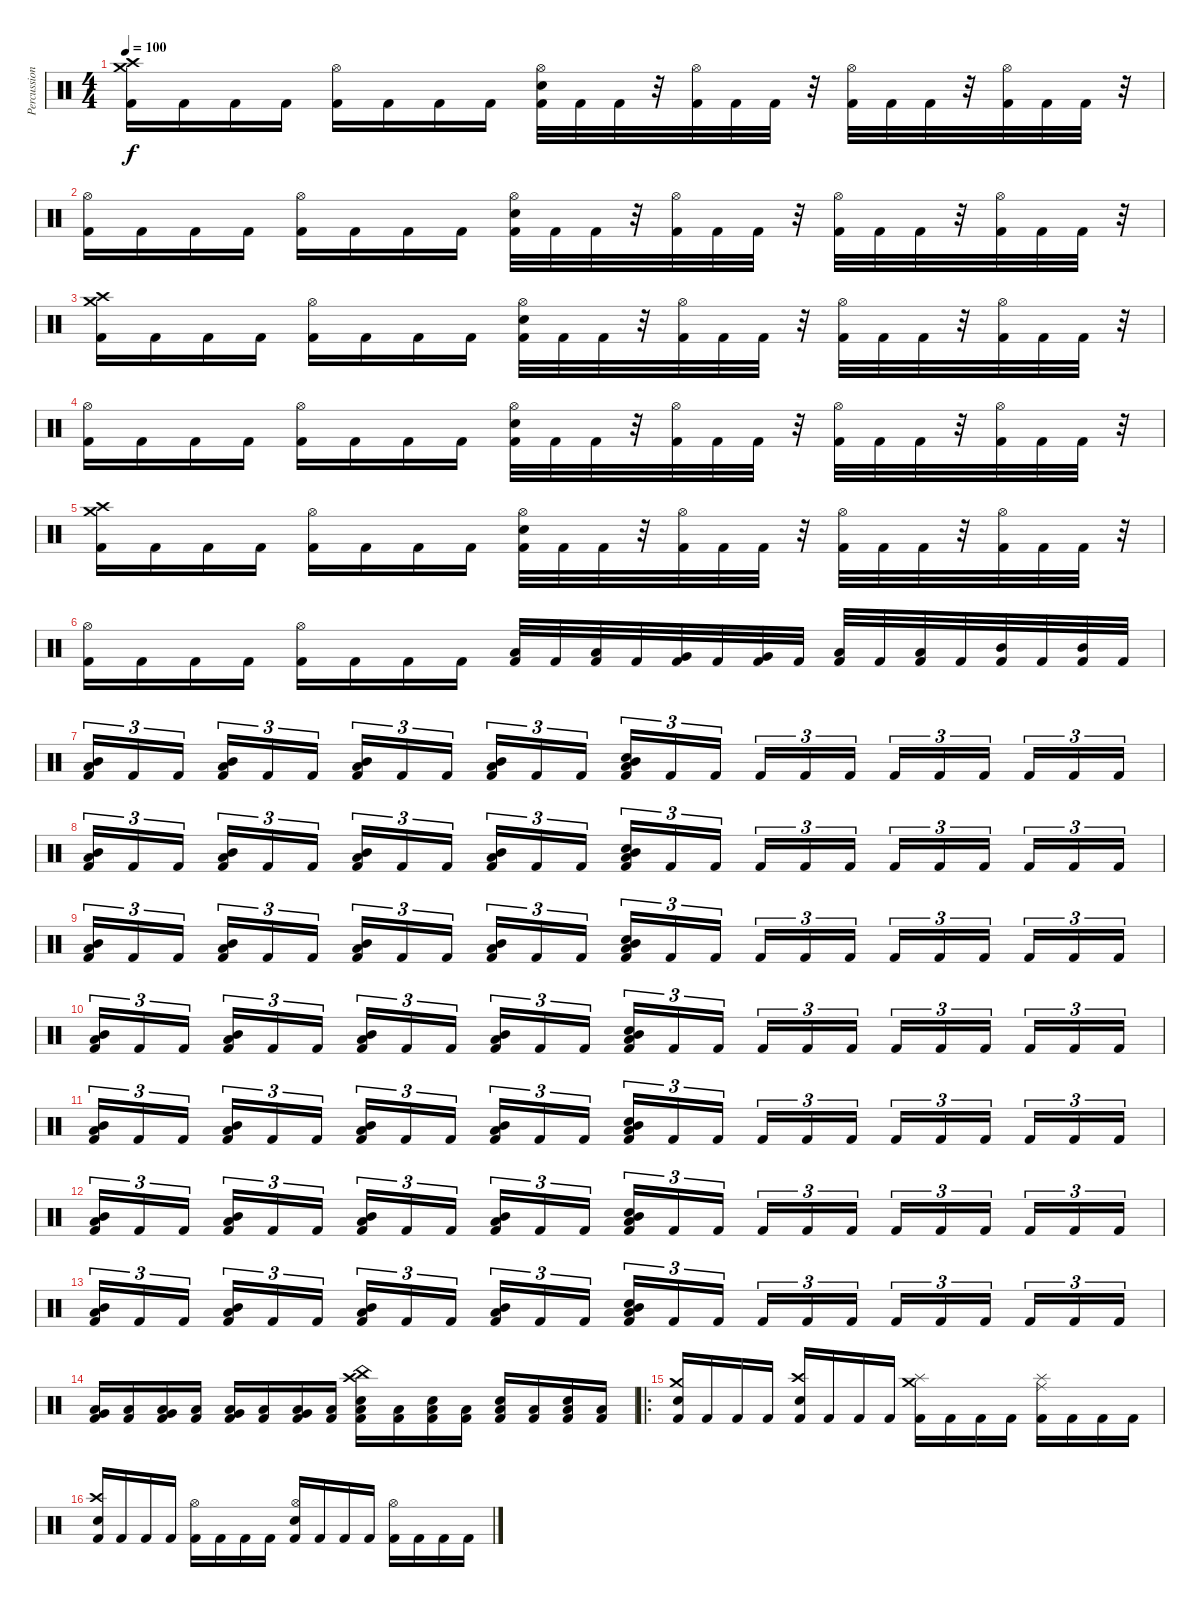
\track ("Percussion" "Percussion") {solo instrument percussion}
\staff {score}
\articulation defaults
\ts (4 4)
\tempo 100
\clef neutral
\ks c
("Kick (hit) 2" "Crash medium (hit)" "Crash high (hit)").16{dy f} "Kick (hit) 2".16 "Kick (hit) 2".16 "Kick (hit) 2".16 ("Kick (hit) 2" "Hi-Hat (open)").16 "Kick (hit) 2".16 "Kick (hit) 2".16 "Kick (hit) 2".16 ("Kick (hit) 2" "Hi-Hat (open)" "Snare (hit) 2").32 "Kick (hit) 2".32 "Kick (hit) 2".32 r.32 ("Kick (hit) 2" "Hi-Hat (open)").32 "Kick (hit) 2".32 "Kick (hit) 2".32 r.32 ("Kick (hit) 2" "Hi-Hat (open)").32 "Kick (hit) 2".32 "Kick (hit) 2".32 r.32 ("Kick (hit) 2" "Hi-Hat (open)").32 "Kick (hit) 2".32 "Kick (hit) 2".32 r.32 |
("Kick (hit) 2" "Hi-Hat (open)").16 "Kick (hit) 2".16 "Kick (hit) 2".16 "Kick (hit) 2".16 ("Kick (hit) 2" "Hi-Hat (open)").16 "Kick (hit) 2".16 "Kick (hit) 2".16 "Kick (hit) 2".16 ("Kick (hit) 2" "Hi-Hat (open)" "Snare (hit) 2").32 "Kick (hit) 2".32 "Kick (hit) 2".32 r.32 ("Kick (hit) 2" "Hi-Hat (open)").32 "Kick (hit) 2".32 "Kick (hit) 2".32 r.32 ("Kick (hit) 2" "Hi-Hat (open)").32 "Kick (hit) 2".32 "Kick (hit) 2".32 r.32 ("Kick (hit) 2" "Hi-Hat (open)").32 "Kick (hit) 2".32 "Kick (hit) 2".32 r.32 |
("Kick (hit) 2" "Crash medium (hit)" "Crash high (hit)").16 "Kick (hit) 2".16 "Kick (hit) 2".16 "Kick (hit) 2".16 ("Kick (hit) 2" "Hi-Hat (open)").16 "Kick (hit) 2".16 "Kick (hit) 2".16 "Kick (hit) 2".16 ("Kick (hit) 2" "Hi-Hat (open)" "Snare (hit) 2").32 "Kick (hit) 2".32 "Kick (hit) 2".32 r.32 ("Kick (hit) 2" "Hi-Hat (open)").32 "Kick (hit) 2".32 "Kick (hit) 2".32 r.32 ("Kick (hit) 2" "Hi-Hat (open)").32 "Kick (hit) 2".32 "Kick (hit) 2".32 r.32 ("Kick (hit) 2" "Hi-Hat (open)").32 "Kick (hit) 2".32 "Kick (hit) 2".32 r.32 |
("Kick (hit) 2" "Hi-Hat (open)").16 "Kick (hit) 2".16 "Kick (hit) 2".16 "Kick (hit) 2".16 ("Kick (hit) 2" "Hi-Hat (open)").16 "Kick (hit) 2".16 "Kick (hit) 2".16 "Kick (hit) 2".16 ("Kick (hit) 2" "Hi-Hat (open)" "Snare (hit) 2").32 "Kick (hit) 2".32 "Kick (hit) 2".32 r.32 ("Kick (hit) 2" "Hi-Hat (open)").32 "Kick (hit) 2".32 "Kick (hit) 2".32 r.32 ("Kick (hit) 2" "Hi-Hat (open)").32 "Kick (hit) 2".32 "Kick (hit) 2".32 r.32 ("Kick (hit) 2" "Hi-Hat (open)").32 "Kick (hit) 2".32 "Kick (hit) 2".32 r.32 |
("Kick (hit) 2" "Crash medium (hit)" "Crash high (hit)").16 "Kick (hit) 2".16 "Kick (hit) 2".16 "Kick (hit) 2".16 ("Kick (hit) 2" "Hi-Hat (open)").16 "Kick (hit) 2".16 "Kick (hit) 2".16 "Kick (hit) 2".16 ("Kick (hit) 2" "Hi-Hat (open)" "Snare (hit) 2").32 "Kick (hit) 2".32 "Kick (hit) 2".32 r.32 ("Kick (hit) 2" "Hi-Hat (open)").32 "Kick (hit) 2".32 "Kick (hit) 2".32 r.32 ("Kick (hit) 2" "Hi-Hat (open)").32 "Kick (hit) 2".32 "Kick (hit) 2".32 r.32 ("Kick (hit) 2" "Hi-Hat (open)").32 "Kick (hit) 2".32 "Kick (hit) 2".32 r.32 |
("Kick (hit) 2" "Hi-Hat (open)").16 "Kick (hit) 2".16 "Kick (hit) 2".16 "Kick (hit) 2".16 ("Kick (hit) 2" "Hi-Hat (open)").16 "Kick (hit) 2".16 "Kick (hit) 2".16 "Kick (hit) 2".16 ("Kick (hit) 2" "Low Floor Tom (hit)").32 "Kick (hit) 2".32 ("Kick (hit) 2" "Low Floor Tom (hit)").32 "Kick (hit) 2".32 ("Kick (hit) 2" "Very Low Tom (hit)").32 "Kick (hit) 2".32 ("Kick (hit) 2" "Very Low Tom (hit)").32 "Kick (hit) 2".32 ("Kick (hit) 2" "Low Floor Tom (hit)").32 "Kick (hit) 2".32 ("Kick (hit) 2" "Low Floor Tom (hit)").32 "Kick (hit) 2".32 ("Kick (hit) 2" "Mid Tom (hit)").32 "Kick (hit) 2".32 ("Kick (hit) 2" "Mid Tom (hit)").32 "Kick (hit) 2".32 |
("Kick (hit) 2" "Low Floor Tom (hit)" "Mid Tom (hit)").16{tu (3 2)} "Kick (hit) 2".16{tu (3 2)} "Kick (hit) 2".16{tu (3 2) beam splitsecondary} ("Kick (hit) 2" "Low Floor Tom (hit)" "Mid Tom (hit)").16{tu (3 2)} "Kick (hit) 2".16{tu (3 2)} "Kick (hit) 2".16{tu (3 2)} ("Kick (hit) 2" "Low Floor Tom (hit)" "Mid Tom (hit)").16{tu (3 2)} "Kick (hit) 2".16{tu (3 2)} "Kick (hit) 2".16{tu (3 2) beam splitsecondary} ("Kick (hit) 2" "Low Floor Tom (hit)" "Mid Tom (hit)").16{tu (3 2)} "Kick (hit) 2".16{tu (3 2)} "Kick (hit) 2".16{tu (3 2)} ("Kick (hit) 2" "Mid Tom (hit)" "Low Floor Tom (hit)" "Snare (hit) 2").16{tu (3 2)} "Kick (hit) 2".16{tu (3 2)} "Kick (hit) 2".16{tu (3 2) beam splitsecondary} "Kick (hit) 2".16{tu (3 2)} "Kick (hit) 2".16{tu (3 2)} "Kick (hit) 2".16{tu (3 2)} "Kick (hit) 2".16{tu (3 2)} "Kick (hit) 2".16{tu (3 2)} "Kick (hit) 2".16{tu (3 2) beam splitsecondary} "Kick (hit) 2".16{tu (3 2)} "Kick (hit) 2".16{tu (3 2)} "Kick (hit) 2".16{tu (3 2)} |
("Kick (hit) 2" "Low Floor Tom (hit)" "Mid Tom (hit)").16{tu (3 2)} "Kick (hit) 2".16{tu (3 2)} "Kick (hit) 2".16{tu (3 2) beam splitsecondary} ("Kick (hit) 2" "Low Floor Tom (hit)" "Mid Tom (hit)").16{tu (3 2)} "Kick (hit) 2".16{tu (3 2)} "Kick (hit) 2".16{tu (3 2)} ("Kick (hit) 2" "Low Floor Tom (hit)" "Mid Tom (hit)").16{tu (3 2)} "Kick (hit) 2".16{tu (3 2)} "Kick (hit) 2".16{tu (3 2) beam splitsecondary} ("Kick (hit) 2" "Low Floor Tom (hit)" "Mid Tom (hit)").16{tu (3 2)} "Kick (hit) 2".16{tu (3 2)} "Kick (hit) 2".16{tu (3 2)} ("Kick (hit) 2" "Mid Tom (hit)" "Low Floor Tom (hit)" "Snare (hit) 2").16{tu (3 2)} "Kick (hit) 2".16{tu (3 2)} "Kick (hit) 2".16{tu (3 2) beam splitsecondary} "Kick (hit) 2".16{tu (3 2)} "Kick (hit) 2".16{tu (3 2)} "Kick (hit) 2".16{tu (3 2)} "Kick (hit) 2".16{tu (3 2)} "Kick (hit) 2".16{tu (3 2)} "Kick (hit) 2".16{tu (3 2) beam splitsecondary} "Kick (hit) 2".16{tu (3 2)} "Kick (hit) 2".16{tu (3 2)} "Kick (hit) 2".16{tu (3 2)} |
("Kick (hit) 2" "Low Floor Tom (hit)" "Mid Tom (hit)").16{tu (3 2)} "Kick (hit) 2".16{tu (3 2)} "Kick (hit) 2".16{tu (3 2) beam splitsecondary} ("Kick (hit) 2" "Low Floor Tom (hit)" "Mid Tom (hit)").16{tu (3 2)} "Kick (hit) 2".16{tu (3 2)} "Kick (hit) 2".16{tu (3 2)} ("Kick (hit) 2" "Low Floor Tom (hit)" "Mid Tom (hit)").16{tu (3 2)} "Kick (hit) 2".16{tu (3 2)} "Kick (hit) 2".16{tu (3 2) beam splitsecondary} ("Kick (hit) 2" "Low Floor Tom (hit)" "Mid Tom (hit)").16{tu (3 2)} "Kick (hit) 2".16{tu (3 2)} "Kick (hit) 2".16{tu (3 2)} ("Kick (hit) 2" "Mid Tom (hit)" "Low Floor Tom (hit)" "Snare (hit) 2").16{tu (3 2)} "Kick (hit) 2".16{tu (3 2)} "Kick (hit) 2".16{tu (3 2) beam splitsecondary} "Kick (hit) 2".16{tu (3 2)} "Kick (hit) 2".16{tu (3 2)} "Kick (hit) 2".16{tu (3 2)} "Kick (hit) 2".16{tu (3 2)} "Kick (hit) 2".16{tu (3 2)} "Kick (hit) 2".16{tu (3 2) beam splitsecondary} "Kick (hit) 2".16{tu (3 2)} "Kick (hit) 2".16{tu (3 2)} "Kick (hit) 2".16{tu (3 2)} |
("Kick (hit) 2" "Low Floor Tom (hit)" "Mid Tom (hit)").16{tu (3 2)} "Kick (hit) 2".16{tu (3 2)} "Kick (hit) 2".16{tu (3 2) beam splitsecondary} ("Kick (hit) 2" "Low Floor Tom (hit)" "Mid Tom (hit)").16{tu (3 2)} "Kick (hit) 2".16{tu (3 2)} "Kick (hit) 2".16{tu (3 2)} ("Kick (hit) 2" "Low Floor Tom (hit)" "Mid Tom (hit)").16{tu (3 2)} "Kick (hit) 2".16{tu (3 2)} "Kick (hit) 2".16{tu (3 2) beam splitsecondary} ("Kick (hit) 2" "Low Floor Tom (hit)" "Mid Tom (hit)").16{tu (3 2)} "Kick (hit) 2".16{tu (3 2)} "Kick (hit) 2".16{tu (3 2)} ("Kick (hit) 2" "Mid Tom (hit)" "Low Floor Tom (hit)" "Snare (hit) 2").16{tu (3 2)} "Kick (hit) 2".16{tu (3 2)} "Kick (hit) 2".16{tu (3 2) beam splitsecondary} "Kick (hit) 2".16{tu (3 2)} "Kick (hit) 2".16{tu (3 2)} "Kick (hit) 2".16{tu (3 2)} "Kick (hit) 2".16{tu (3 2)} "Kick (hit) 2".16{tu (3 2)} "Kick (hit) 2".16{tu (3 2) beam splitsecondary} "Kick (hit) 2".16{tu (3 2)} "Kick (hit) 2".16{tu (3 2)} "Kick (hit) 2".16{tu (3 2)} |
("Kick (hit) 2" "Low Floor Tom (hit)" "Mid Tom (hit)").16{tu (3 2)} "Kick (hit) 2".16{tu (3 2)} "Kick (hit) 2".16{tu (3 2) beam splitsecondary} ("Kick (hit) 2" "Low Floor Tom (hit)" "Mid Tom (hit)").16{tu (3 2)} "Kick (hit) 2".16{tu (3 2)} "Kick (hit) 2".16{tu (3 2)} ("Kick (hit) 2" "Low Floor Tom (hit)" "Mid Tom (hit)").16{tu (3 2)} "Kick (hit) 2".16{tu (3 2)} "Kick (hit) 2".16{tu (3 2) beam splitsecondary} ("Kick (hit) 2" "Low Floor Tom (hit)" "Mid Tom (hit)").16{tu (3 2)} "Kick (hit) 2".16{tu (3 2)} "Kick (hit) 2".16{tu (3 2)} ("Kick (hit) 2" "Mid Tom (hit)" "Low Floor Tom (hit)" "Snare (hit) 2").16{tu (3 2)} "Kick (hit) 2".16{tu (3 2)} "Kick (hit) 2".16{tu (3 2) beam splitsecondary} "Kick (hit) 2".16{tu (3 2)} "Kick (hit) 2".16{tu (3 2)} "Kick (hit) 2".16{tu (3 2)} "Kick (hit) 2".16{tu (3 2)} "Kick (hit) 2".16{tu (3 2)} "Kick (hit) 2".16{tu (3 2) beam splitsecondary} "Kick (hit) 2".16{tu (3 2)} "Kick (hit) 2".16{tu (3 2)} "Kick (hit) 2".16{tu (3 2)} |
("Kick (hit) 2" "Low Floor Tom (hit)" "Mid Tom (hit)").16{tu (3 2)} "Kick (hit) 2".16{tu (3 2)} "Kick (hit) 2".16{tu (3 2) beam splitsecondary} ("Kick (hit) 2" "Low Floor Tom (hit)" "Mid Tom (hit)").16{tu (3 2)} "Kick (hit) 2".16{tu (3 2)} "Kick (hit) 2".16{tu (3 2)} ("Kick (hit) 2" "Low Floor Tom (hit)" "Mid Tom (hit)").16{tu (3 2)} "Kick (hit) 2".16{tu (3 2)} "Kick (hit) 2".16{tu (3 2) beam splitsecondary} ("Kick (hit) 2" "Low Floor Tom (hit)" "Mid Tom (hit)").16{tu (3 2)} "Kick (hit) 2".16{tu (3 2)} "Kick (hit) 2".16{tu (3 2)} ("Kick (hit) 2" "Mid Tom (hit)" "Low Floor Tom (hit)" "Snare (hit) 2").16{tu (3 2)} "Kick (hit) 2".16{tu (3 2)} "Kick (hit) 2".16{tu (3 2) beam splitsecondary} "Kick (hit) 2".16{tu (3 2)} "Kick (hit) 2".16{tu (3 2)} "Kick (hit) 2".16{tu (3 2)} "Kick (hit) 2".16{tu (3 2)} "Kick (hit) 2".16{tu (3 2)} "Kick (hit) 2".16{tu (3 2) beam splitsecondary} "Kick (hit) 2".16{tu (3 2)} "Kick (hit) 2".16{tu (3 2)} "Kick (hit) 2".16{tu (3 2)} |
("Kick (hit) 2" "Low Floor Tom (hit)" "Mid Tom (hit)").16{tu (3 2)} "Kick (hit) 2".16{tu (3 2)} "Kick (hit) 2".16{tu (3 2) beam splitsecondary} ("Kick (hit) 2" "Low Floor Tom (hit)" "Mid Tom (hit)").16{tu (3 2)} "Kick (hit) 2".16{tu (3 2)} "Kick (hit) 2".16{tu (3 2)} ("Kick (hit) 2" "Low Floor Tom (hit)" "Mid Tom (hit)").16{tu (3 2)} "Kick (hit) 2".16{tu (3 2)} "Kick (hit) 2".16{tu (3 2) beam splitsecondary} ("Kick (hit) 2" "Low Floor Tom (hit)" "Mid Tom (hit)").16{tu (3 2)} "Kick (hit) 2".16{tu (3 2)} "Kick (hit) 2".16{tu (3 2)} ("Kick (hit) 2" "Mid Tom (hit)" "Low Floor Tom (hit)" "Snare (hit) 2").16{tu (3 2)} "Kick (hit) 2".16{tu (3 2)} "Kick (hit) 2".16{tu (3 2) beam splitsecondary} "Kick (hit) 2".16{tu (3 2)} "Kick (hit) 2".16{tu (3 2)} "Kick (hit) 2".16{tu (3 2)} "Kick (hit) 2".16{tu (3 2)} "Kick (hit) 2".16{tu (3 2)} "Kick (hit) 2".16{tu (3 2) beam splitsecondary} "Kick (hit) 2".16{tu (3 2)} "Kick (hit) 2".16{tu (3 2)} "Kick (hit) 2".16{tu (3 2)} |
("Kick (hit) 2" "Low Floor Tom (hit)" "Very Low Tom (hit)").16 ("Kick (hit) 2" "Low Floor Tom (hit)").16 ("Kick (hit) 2" "Low Floor Tom (hit)" "Very Low Tom (hit)").16 ("Kick (hit) 2" "Low Floor Tom (hit)").16 ("Kick (hit) 2" "Low Floor Tom (hit)" "Very Low Tom (hit)").16 ("Kick (hit) 2" "Low Floor Tom (hit)").16 ("Kick (hit) 2" "Low Floor Tom (hit)" "Very Low Tom (hit)").16 ("Kick (hit) 2" "Low Floor Tom (hit)").16 ("Kick (hit) 2" "Low Floor Tom (hit)" "Snare (hit) 2" "Crash high (hit)" "China (hit)").16 ("Kick (hit) 2" "Low Floor Tom (hit)").16 ("Kick (hit) 2" "Low Floor Tom (hit)" "Snare (hit) 2").16 ("Kick (hit) 2" "Low Floor Tom (hit)").16 ("Kick (hit) 2" "Low Floor Tom (hit)" "Snare (hit) 2").16 ("Kick (hit) 2" "Low Floor Tom (hit)").16 ("Kick (hit) 2" "Low Floor Tom (hit)" "Snare (hit) 2").16 ("Kick (hit) 2" "Low Floor Tom (hit)").16 |
\ro
("Kick (hit) 2" "Crash medium (hit)" "Snare (hit) 2").16 "Kick (hit) 2".16 "Kick (hit) 2".16 "Kick (hit) 2".16 ("Kick (hit) 2" "Crash high (hit)" "Snare (hit) 2").16 "Kick (hit) 2".16 "Kick (hit) 2".16 "Kick (hit) 2".16 ("Kick (hit) 2" "Crash medium (hit)" "Splash (hit)").16 "Kick (hit) 2".16 "Kick (hit) 2".16 "Kick (hit) 2".16 ("Kick (hit) 2" "Ride (middle)" "Splash (hit)").16 "Kick (hit) 2".16 "Kick (hit) 2".16 "Kick (hit) 2".16 |
("Kick (hit) 2" "Crash high (hit)" "Snare (hit) 2").16 "Kick (hit) 2".16 "Kick (hit) 2".16 "Kick (hit) 2".16 ("Kick (hit) 2" "Hi-Hat (open)").16 "Kick (hit) 2".16 "Kick (hit) 2".16 "Kick (hit) 2".16 ("Kick (hit) 2" "Hi-Hat (open)" "Snare (hit) 2").16 "Kick (hit) 2".16 "Kick (hit) 2".16 "Kick (hit) 2".16 ("Kick (hit) 2" "Hi-Hat (open)").16 "Kick (hit) 2".16 "Kick (hit) 2".16 "Kick (hit) 2".16
